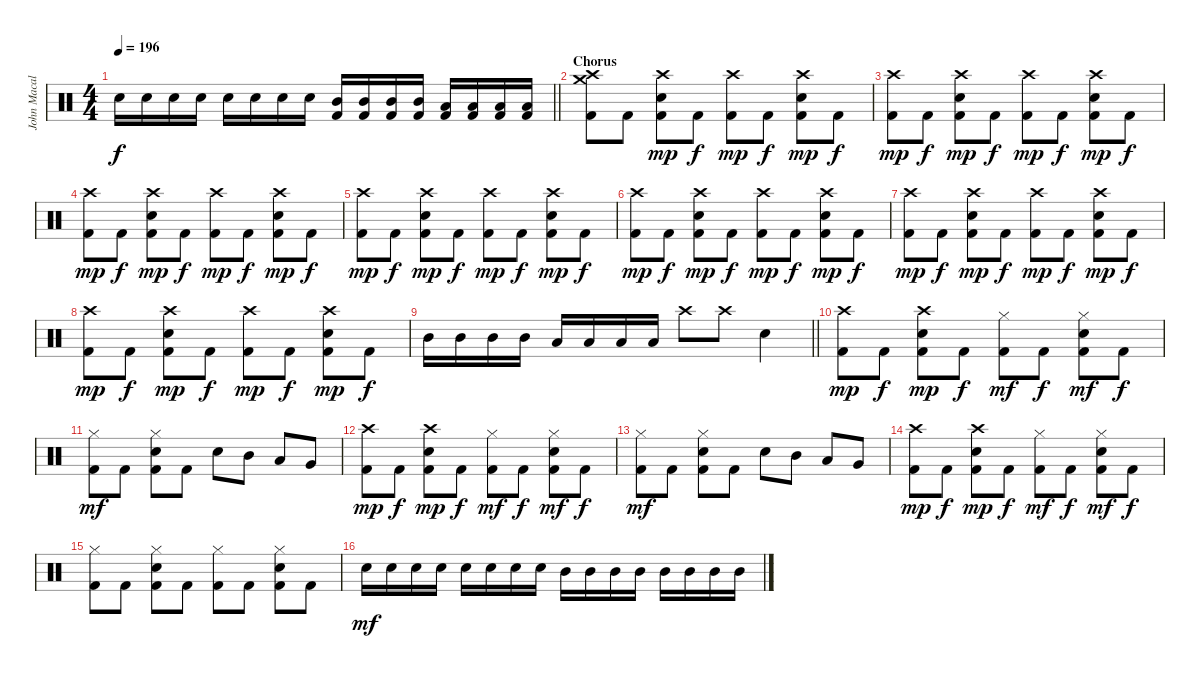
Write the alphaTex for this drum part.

\track ("John Macaluso" "John Macal") {instrument percussion}
\staff {score}
\articulation defaults
\ts (4 4)
\tempo 196
\clef neutral
\barLineRight lightlight
\ks c "Electric Snare (hit)".16{dy f} "Electric Snare (hit)".16 "Electric Snare (hit)".16 "Electric Snare (hit)".16 "Electric Snare (hit)".16 "Electric Snare (hit)".16 "Electric Snare (hit)".16 "Electric Snare (hit)".16
("Mid Tom (hit)" "Kick (hit) 2").16 ("Mid Tom (hit)" "Kick (hit) 2").16 ("Mid Tom (hit)" "Kick (hit) 2").16 ("Mid Tom (hit)" "Kick (hit) 2").16 ("Low Tom (hit)" "Kick (hit) 2").16 ("Low Tom (hit)" "Kick (hit) 2").16 ("Low Tom (hit)" "Kick (hit) 2").16 ("Low Tom (hit)" "Kick (hit) 2").16 |
\section ("" "Chorus")
("Crash medium (hit)" "Crash high (hit)" "Kick (hit) 2").8 "Kick (hit) 2".8 ("Crash high (hit)" "Electric Snare (hit)" "Kick (hit) 2").8{dy mp} "Kick (hit) 2".8{dy f} ("Crash high (hit)" "Kick (hit) 2").8{dy mp} "Kick (hit) 2".8{dy f} ("Crash high (hit)" "Electric Snare (hit)" "Kick (hit) 2").8{dy mp} "Kick (hit) 2".8{dy f} |
("Crash high (hit)" "Kick (hit) 2").8{dy mp} "Kick (hit) 2".8{dy f} ("Crash high (hit)" "Electric Snare (hit)" "Kick (hit) 2").8{dy mp} "Kick (hit) 2".8{dy f} ("Crash high (hit)" "Kick (hit) 2").8{dy mp} "Kick (hit) 2".8{dy f} ("Crash high (hit)" "Electric Snare (hit)" "Kick (hit) 2").8{dy mp} "Kick (hit) 2".8{dy f} |
("Crash high (hit)" "Kick (hit) 2").8{dy mp} "Kick (hit) 2".8{dy f} ("Crash high (hit)" "Electric Snare (hit)" "Kick (hit) 2").8{dy mp} "Kick (hit) 2".8{dy f} ("Crash high (hit)" "Kick (hit) 2").8{dy mp} "Kick (hit) 2".8{dy f} ("Crash high (hit)" "Electric Snare (hit)" "Kick (hit) 2").8{dy mp} "Kick (hit) 2".8{dy f} |
("Crash high (hit)" "Kick (hit) 2").8{dy mp} "Kick (hit) 2".8{dy f} ("Crash high (hit)" "Electric Snare (hit)" "Kick (hit) 2").8{dy mp} "Kick (hit) 2".8{dy f} ("Crash high (hit)" "Kick (hit) 2").8{dy mp} "Kick (hit) 2".8{dy f} ("Crash high (hit)" "Electric Snare (hit)" "Kick (hit) 2").8{dy mp} "Kick (hit) 2".8{dy f} |
("Crash high (hit)" "Kick (hit) 2").8{dy mp} "Kick (hit) 2".8{dy f} ("Crash high (hit)" "Electric Snare (hit)" "Kick (hit) 2").8{dy mp} "Kick (hit) 2".8{dy f} ("Crash high (hit)" "Kick (hit) 2").8{dy mp} "Kick (hit) 2".8{dy f} ("Crash high (hit)" "Electric Snare (hit)" "Kick (hit) 2").8{dy mp} "Kick (hit) 2".8{dy f} |
("Crash high (hit)" "Kick (hit) 2").8{dy mp} "Kick (hit) 2".8{dy f} ("Crash high (hit)" "Electric Snare (hit)" "Kick (hit) 2").8{dy mp} "Kick (hit) 2".8{dy f} ("Crash high (hit)" "Kick (hit) 2").8{dy mp} "Kick (hit) 2".8{dy f} ("Crash high (hit)" "Electric Snare (hit)" "Kick (hit) 2").8{dy mp} "Kick (hit) 2".8{dy f} |
("Crash high (hit)" "Kick (hit) 2").8{dy mp} "Kick (hit) 2".8{dy f} ("Crash high (hit)" "Electric Snare (hit)" "Kick (hit) 2").8{dy mp} "Kick (hit) 2".8{dy f} ("Crash high (hit)" "Kick (hit) 2").8{dy mp} "Kick (hit) 2".8{dy f} ("Crash high (hit)" "Electric Snare (hit)" "Kick (hit) 2").8{dy mp} "Kick (hit) 2".8{dy f} |
\barLineRight lightlight "Mid Tom (hit)".16 "Mid Tom (hit)".16 "Mid Tom (hit)".16 "Mid Tom (hit)".16 "Low Tom (hit)".16 "Low Tom (hit)".16 "Low Tom (hit)".16 "Low Tom (hit)".16 "Crash high (hit)".8 "Crash high (hit)".8 "Electric Snare (hit)".4
|
("Crash high (hit)" "Kick (hit) 2").8{dy mp} "Kick (hit) 2".8{dy f} ("Crash high (hit)" "Electric Snare (hit)" "Kick (hit) 2").8{dy mp} "Kick (hit) 2".8{dy f} ("Hi-Hat (closed)" "Kick (hit) 2").8{dy mf} "Kick (hit) 2".8{dy f} ("Electric Snare (hit)" "Hi-Hat (closed)" "Kick (hit) 2").8{dy mf} "Kick (hit) 2".8{dy f} |
("Hi-Hat (closed)" "Kick (hit) 2").8{dy mf} "Kick (hit) 2".8 ("Electric Snare (hit)" "Hi-Hat (closed)" "Kick (hit) 2").8 "Kick (hit) 2".8 "Electric Snare (hit)".8 "Mid Tom (hit)".8 "Low Tom (hit)".8 "Very Low Tom (hit)".8 |
("Crash high (hit)" "Kick (hit) 2").8{dy mp} "Kick (hit) 2".8{dy f} ("Crash high (hit)" "Electric Snare (hit)" "Kick (hit) 2").8{dy mp} "Kick (hit) 2".8{dy f} ("Hi-Hat (closed)" "Kick (hit) 2").8{dy mf} "Kick (hit) 2".8{dy f} ("Electric Snare (hit)" "Hi-Hat (closed)" "Kick (hit) 2").8{dy mf} "Kick (hit) 2".8{dy f} |
("Hi-Hat (closed)" "Kick (hit) 2").8{dy mf} "Kick (hit) 2".8 ("Electric Snare (hit)" "Hi-Hat (closed)" "Kick (hit) 2").8 "Kick (hit) 2".8 "Electric Snare (hit)".8 "Mid Tom (hit)".8 "Low Tom (hit)".8 "Very Low Tom (hit)".8 |
("Crash high (hit)" "Kick (hit) 2").8{dy mp} "Kick (hit) 2".8{dy f} ("Crash high (hit)" "Electric Snare (hit)" "Kick (hit) 2").8{dy mp} "Kick (hit) 2".8{dy f} ("Hi-Hat (closed)" "Kick (hit) 2").8{dy mf} "Kick (hit) 2".8{dy f} ("Electric Snare (hit)" "Hi-Hat (closed)" "Kick (hit) 2").8{dy mf} "Kick (hit) 2".8{dy f} |
("Hi-Hat (closed)" "Kick (hit) 2").8 "Kick (hit) 2".8 ("Electric Snare (hit)" "Hi-Hat (closed)" "Kick (hit) 2").8 "Kick (hit) 2".8 ("Hi-Hat (closed)" "Kick (hit) 2").8 "Kick (hit) 2".8 ("Electric Snare (hit)" "Hi-Hat (closed)" "Kick (hit) 2").8 "Kick (hit) 2".8 |
"Electric Snare (hit)".16{dy mf} "Electric Snare (hit)".16 "Electric Snare (hit)".16 "Electric Snare (hit)".16 "Electric Snare (hit)".16 "Electric Snare (hit)".16 "Electric Snare (hit)".16 "Electric Snare (hit)".16 "Mid Tom (hit)".16 "Mid Tom (hit)".16 "Mid Tom (hit)".16 "Mid Tom (hit)".16 "Mid Tom (hit)".16 "Mid Tom (hit)".16 "Mid Tom (hit)".16 "Mid Tom (hit)".16
